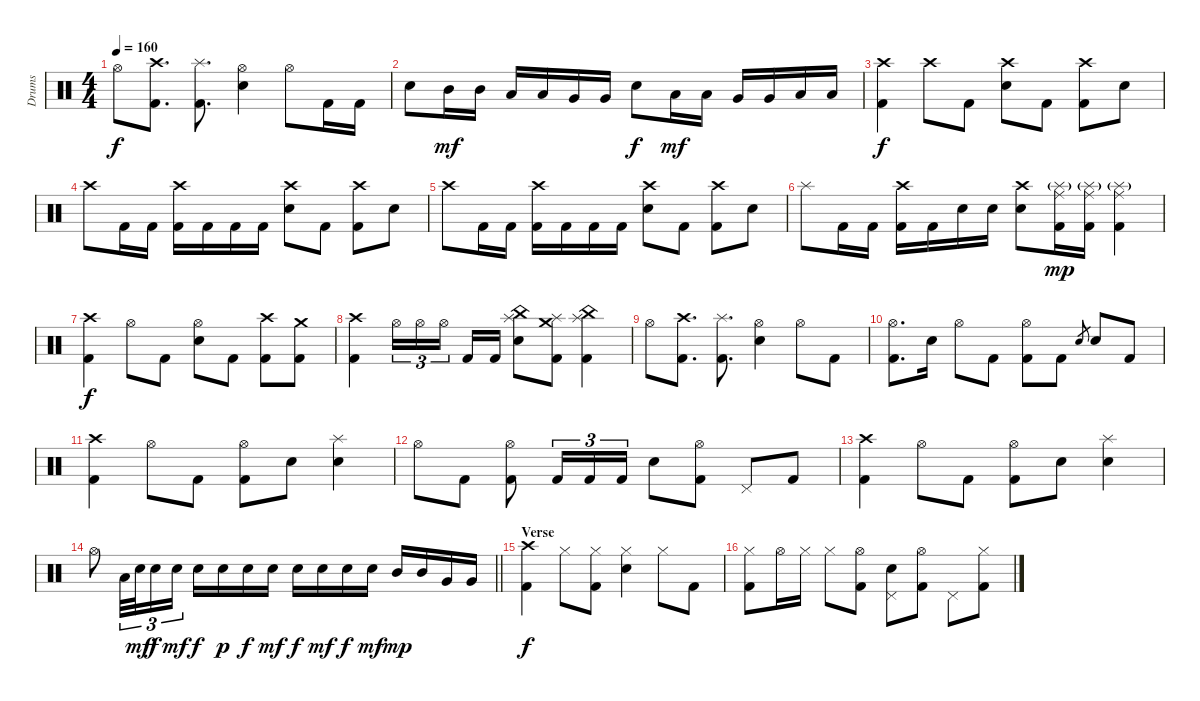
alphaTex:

\track ("Drums" "Drums") {instrument percussion}
\staff {score}
\articulation defaults
\ts (4 4)
\tempo 160
\clef neutral
\ks c "Hi-Hat (open)".8{dy f}
("Crash high (hit)" "Kick (hit) 2").8{d} ("Splash (hit)" "Kick (hit) 2").8{d} ("Hi-Hat (open)" "Electric Snare (hit)").4 "Hi-Hat (open)".8 "Kick (hit) 2".16 "Kick (hit) 2".16 |
"Electric Snare (hit)".8 "Mid Tom (hit)".16{dy mf} "Mid Tom (hit)".16 "Low Tom (hit)".16 "Low Tom (hit)".16 "Very Low Tom (hit)".16 "Very Low Tom (hit)".16 "Electric Snare (hit)".8{dy f} "Low Tom (hit)".16{dy mf} "Low Tom (hit)".16 "Very Low Tom (hit)".16 "Very Low Tom (hit)".16 "Low Floor Tom (hit)".16 "Low Floor Tom (hit)".16 |
("Crash high (hit)" "Kick (hit) 2").4{dy f} "Crash high (hit)".8 "Kick (hit) 2".8 ("Crash high (hit)" "Electric Snare (hit)").8 "Kick (hit) 2".8 ("Crash high (hit)" "Kick (hit) 2").8 "Electric Snare (hit)".8 |
"Crash high (hit)".8 "Kick (hit) 2".16 "Kick (hit) 2".16 ("Crash high (hit)" "Kick (hit) 2").16 "Kick (hit) 2".16 "Kick (hit) 2".16 "Kick (hit) 2".16 ("Crash high (hit)" "Electric Snare (hit)").8 "Kick (hit) 2".8 ("Crash high (hit)" "Kick (hit) 2").8 "Electric Snare (hit)".8 |
"Crash high (hit)".8 "Kick (hit) 2".16 "Kick (hit) 2".16 ("Crash high (hit)" "Kick (hit) 2").16 "Kick (hit) 2".16 "Kick (hit) 2".16 "Kick (hit) 2".16 ("Crash high (hit)" "Electric Snare (hit)").8 "Kick (hit) 2".8 ("Crash high (hit)" "Kick (hit) 2").8 "Electric Snare (hit)".8 |
"Splash (hit)".8 "Kick (hit) 2".16 "Kick (hit) 2".16 ("Crash high (hit)" "Kick (hit) 2").16 "Kick (hit) 2".16 "Electric Snare (hit)".16 "Electric Snare (hit)".16 ("Crash high (hit)" "Electric Snare (hit)").8 ("Splash (hit)"{g} "Ride (middle)" "Kick (hit) 2").16{dy mp} ("Splash (hit)"{g} "Ride (middle)" "Kick (hit) 2").16 ("Splash (hit)"{g} "Ride (middle)" "Kick (hit) 2").4 |
("Crash high (hit)" "Kick (hit) 2").4{dy f} "Hi-Hat (open)".8 "Kick (hit) 2".8 ("Hi-Hat (open)" "Electric Snare (hit)").8 "Kick (hit) 2".8 ("Crash high (hit)" "Kick (hit) 2").8 ("Crash medium (hit)" "Kick (hit) 2").8 |
("Crash high (hit)" "Kick (hit) 2").4 "Hi-Hat (open)".16{tu (3 2)} "Hi-Hat (open)".16{tu (3 2)} "Hi-Hat (open)".16{tu (3 2)} "Kick (hit) 2".16 "Kick (hit) 2".16 ("China (hit)" "Splash (hit)" "Electric Snare (hit)").8 ("Crash medium (hit)" "Splash (hit)" "Kick (hit) 2").8 ("China (hit)" "Splash (hit)" "Kick (hit) 2").4 |
"Hi-Hat (open)".8 ("Crash high (hit)" "Kick (hit) 2").8{d} ("Splash (hit)" "Kick (hit) 2").8{d} ("Hi-Hat (open)" "Electric Snare (hit)").4 "Hi-Hat (open)".8 "Kick (hit) 2".8 |
("Hi-Hat (open)" "Kick (hit) 2").8{d} "Electric Snare (hit)".16 "Hi-Hat (open)".8 "Kick (hit) 2".8 ("Hi-Hat (open)" "Kick (hit) 2").8 "Kick (hit) 2".8 "Electric Snare (hit)".8{gr} "Electric Snare (hit)".8 "Kick (hit) 2".8 |
("Crash high (hit)" "Kick (hit) 2").4 "Hi-Hat (open)".8 "Kick (hit) 2".8 ("Hi-Hat (open)" "Kick (hit) 2").8 "Electric Snare (hit)".8 ("Splash (hit)" "Electric Snare (hit)").4 |
"Hi-Hat (open)".8 "Kick (hit) 2".8 ("Hi-Hat (open)" "Kick (hit) 2").8 "Kick (hit) 2".16{tu (3 2)} "Kick (hit) 2".16{tu (3 2)} "Kick (hit) 2".16{tu (3 2)} "Electric Snare (hit)".8 ("Hi-Hat (open)" "Kick (hit) 2").8 "Pedal Hi-Hat (hit)".8 "Kick (hit) 2".8 |
("Crash high (hit)" "Kick (hit) 2").4 "Hi-Hat (open)".8 "Kick (hit) 2".8 ("Hi-Hat (open)" "Kick (hit) 2").8 "Electric Snare (hit)".8 ("Splash (hit)" "Electric Snare (hit)").4 |
\barLineRight lightlight "Hi-Hat (open)".8 "Low Tom (hit)".32{tu (3 2)} "Electric Snare (hit)".32{tu (3 2) dy mf} "Electric Snare (hit)".16{tu (3 2) dy f} "Electric Snare (hit)".16{tu (3 2) dy mf} "Electric Snare (hit)".16{dy f} "Electric Snare (hit)".16{dy p} "Electric Snare (hit)".16{dy f} "Electric Snare (hit)".16{dy mf} "Electric Snare (hit)".16{dy f} "Electric Snare (hit)".16{dy mf} "Electric Snare (hit)".16{dy f} "Electric Snare (hit)".16{dy mf} "Mid Tom (hit)".16{dy mp} "Mid Tom (hit)".16 "Very Low Tom (hit)".16 "Very Low Tom (hit)".16
|
\section ("" "Verse")
("Crash high (hit)" "Kick (hit) 2").4{dy f} "Hi-Hat (closed)".8 ("Hi-Hat (closed)" "Kick (hit) 2").8 ("Hi-Hat (closed)" "Electric Snare (hit)").4 "Hi-Hat (closed)".8 "Kick (hit) 2".8 |
("Hi-Hat (closed)" "Kick (hit) 2").8 "Hi-Hat (open)".16 "Hi-Hat (closed)".16 "Hi-Hat (closed)".8 ("Hi-Hat (open)" "Kick (hit) 2").8 ("Pedal Hi-Hat (hit)" "Electric Snare (hit)").8 ("Hi-Hat (open)" "Kick (hit) 2").8 "Pedal Hi-Hat (hit)".8 ("Hi-Hat (closed)" "Kick (hit) 2").8
